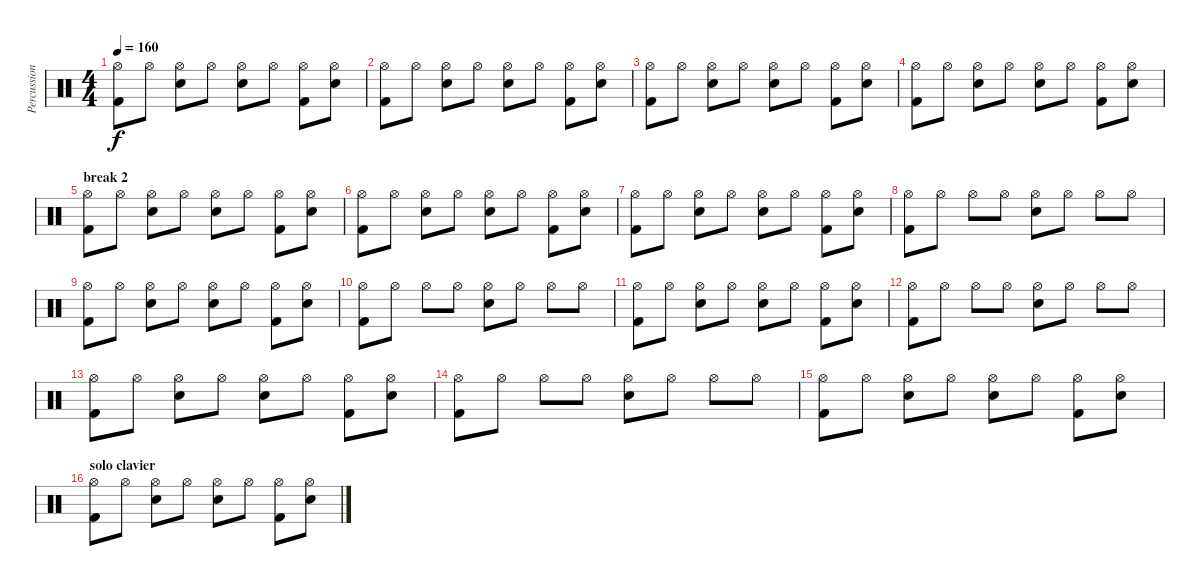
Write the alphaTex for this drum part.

\track ("Percussions" "Percussion") {instrument percussion}
\staff {score}
\articulation defaults
\ts (4 4)
\tempo 160
\clef neutral
\ks c
("Hi-Hat (open)" "Kick (hit) 2").8{dy f} "Hi-Hat (open)".8 ("Hi-Hat (open)" "Electric Snare (hit)").8 "Hi-Hat (open)".8 ("Hi-Hat (open)" "Electric Snare (hit)").8 "Hi-Hat (open)".8 ("Hi-Hat (open)" "Kick (hit) 2").8 ("Hi-Hat (open)" "Electric Snare (hit)").8 |
("Hi-Hat (open)" "Kick (hit) 2").8 "Hi-Hat (open)".8 ("Hi-Hat (open)" "Electric Snare (hit)").8 "Hi-Hat (open)".8 ("Hi-Hat (open)" "Electric Snare (hit)").8 "Hi-Hat (open)".8 ("Hi-Hat (open)" "Kick (hit) 2").8 ("Hi-Hat (open)" "Electric Snare (hit)").8 |
("Hi-Hat (open)" "Kick (hit) 2").8 "Hi-Hat (open)".8 ("Hi-Hat (open)" "Electric Snare (hit)").8 "Hi-Hat (open)".8 ("Hi-Hat (open)" "Electric Snare (hit)").8 "Hi-Hat (open)".8 ("Hi-Hat (open)" "Kick (hit) 2").8 ("Hi-Hat (open)" "Electric Snare (hit)").8 |
("Hi-Hat (open)" "Kick (hit) 2").8 "Hi-Hat (open)".8 ("Hi-Hat (open)" "Electric Snare (hit)").8 "Hi-Hat (open)".8 ("Hi-Hat (open)" "Electric Snare (hit)").8 "Hi-Hat (open)".8 ("Hi-Hat (open)" "Kick (hit) 2").8 ("Hi-Hat (open)" "Electric Snare (hit)").8 |
\section ("" "break 2")
("Hi-Hat (open)" "Kick (hit) 2").8 "Hi-Hat (open)".8 ("Hi-Hat (open)" "Electric Snare (hit)").8 "Hi-Hat (open)".8 ("Hi-Hat (open)" "Electric Snare (hit)").8 "Hi-Hat (open)".8 ("Hi-Hat (open)" "Kick (hit) 2").8 ("Hi-Hat (open)" "Electric Snare (hit)").8 |
("Hi-Hat (open)" "Kick (hit) 2").8 "Hi-Hat (open)".8 ("Hi-Hat (open)" "Electric Snare (hit)").8 "Hi-Hat (open)".8 ("Hi-Hat (open)" "Electric Snare (hit)").8 "Hi-Hat (open)".8 ("Hi-Hat (open)" "Kick (hit) 2").8 ("Hi-Hat (open)" "Electric Snare (hit)").8 |
("Hi-Hat (open)" "Kick (hit) 2").8 "Hi-Hat (open)".8 ("Hi-Hat (open)" "Electric Snare (hit)").8 "Hi-Hat (open)".8 ("Hi-Hat (open)" "Electric Snare (hit)").8 "Hi-Hat (open)".8 ("Hi-Hat (open)" "Kick (hit) 2").8 ("Hi-Hat (open)" "Electric Snare (hit)").8 |
("Hi-Hat (open)" "Kick (hit) 2").8 "Hi-Hat (open)".8 "Hi-Hat (open)".8 "Hi-Hat (open)".8 ("Hi-Hat (open)" "Electric Snare (hit)").8 "Hi-Hat (open)".8 "Hi-Hat (open)".8 "Hi-Hat (open)".8 |
("Hi-Hat (open)" "Kick (hit) 2").8 "Hi-Hat (open)".8 ("Hi-Hat (open)" "Electric Snare (hit)").8 "Hi-Hat (open)".8 ("Hi-Hat (open)" "Electric Snare (hit)").8 "Hi-Hat (open)".8 ("Hi-Hat (open)" "Kick (hit) 2").8 ("Hi-Hat (open)" "Electric Snare (hit)").8 |
("Hi-Hat (open)" "Kick (hit) 2").8 "Hi-Hat (open)".8 "Hi-Hat (open)".8 "Hi-Hat (open)".8 ("Hi-Hat (open)" "Electric Snare (hit)").8 "Hi-Hat (open)".8 "Hi-Hat (open)".8 "Hi-Hat (open)".8 |
("Hi-Hat (open)" "Kick (hit) 2").8 "Hi-Hat (open)".8 ("Hi-Hat (open)" "Electric Snare (hit)").8 "Hi-Hat (open)".8 ("Hi-Hat (open)" "Electric Snare (hit)").8 "Hi-Hat (open)".8 ("Hi-Hat (open)" "Kick (hit) 2").8 ("Hi-Hat (open)" "Electric Snare (hit)").8 |
("Hi-Hat (open)" "Kick (hit) 2").8 "Hi-Hat (open)".8 "Hi-Hat (open)".8 "Hi-Hat (open)".8 ("Hi-Hat (open)" "Electric Snare (hit)").8 "Hi-Hat (open)".8 "Hi-Hat (open)".8 "Hi-Hat (open)".8 |
("Hi-Hat (open)" "Kick (hit) 2").8 "Hi-Hat (open)".8 ("Hi-Hat (open)" "Electric Snare (hit)").8 "Hi-Hat (open)".8 ("Hi-Hat (open)" "Electric Snare (hit)").8 "Hi-Hat (open)".8 ("Hi-Hat (open)" "Kick (hit) 2").8 ("Hi-Hat (open)" "Electric Snare (hit)").8 |
("Hi-Hat (open)" "Kick (hit) 2").8 "Hi-Hat (open)".8 "Hi-Hat (open)".8 "Hi-Hat (open)".8 ("Hi-Hat (open)" "Electric Snare (hit)").8 "Hi-Hat (open)".8 "Hi-Hat (open)".8 "Hi-Hat (open)".8 |
("Hi-Hat (open)" "Kick (hit) 2").8 "Hi-Hat (open)".8 ("Hi-Hat (open)" "Electric Snare (hit)").8 "Hi-Hat (open)".8 ("Hi-Hat (open)" "Electric Snare (hit)").8 "Hi-Hat (open)".8 ("Hi-Hat (open)" "Kick (hit) 2").8 ("Hi-Hat (open)" "Electric Snare (hit)").8 |
\section ("" "solo clavier")
("Hi-Hat (open)" "Kick (hit) 2").8 "Hi-Hat (open)".8 ("Hi-Hat (open)" "Electric Snare (hit)").8 "Hi-Hat (open)".8 ("Hi-Hat (open)" "Electric Snare (hit)").8 "Hi-Hat (open)".8 ("Hi-Hat (open)" "Kick (hit) 2").8 ("Hi-Hat (open)" "Electric Snare (hit)").8
